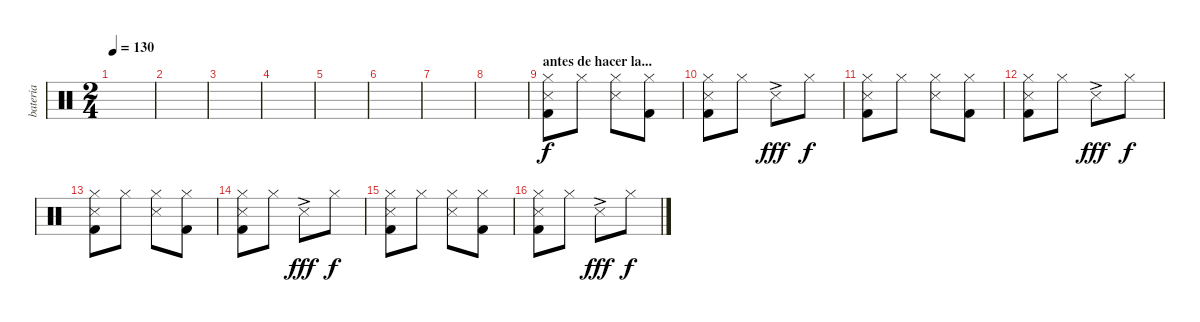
\track ("bateria" "bateria") {instrument percussion}
\staff {score}
\articulation defaults
\ts (2 4)
\tempo 130
\clef neutral
\ks c
|
|
|
|
|
|
|
|
\section ("" "antes de hacer la...")
("Hi-Hat (closed)" "Snare (side stick) 3" "Kick (hit) 2").8{dy f} "Hi-Hat (closed)".8 ("Hi-Hat (closed)" "Snare (side stick) 3").8 ("Hi-Hat (closed)" "Kick (hit) 2").8 |
("Hi-Hat (closed)" "Snare (side stick) 3" "Kick (hit) 2").8 "Hi-Hat (closed)".8 "Snare (side stick) 3"{ac}.8{dy fff} "Hi-Hat (closed)".8{dy f} |
("Hi-Hat (closed)" "Snare (side stick) 3" "Kick (hit) 2").8 "Hi-Hat (closed)".8 ("Hi-Hat (closed)" "Snare (side stick) 3").8 ("Hi-Hat (closed)" "Kick (hit) 2").8 |
("Hi-Hat (closed)" "Snare (side stick) 3" "Kick (hit) 2").8 "Hi-Hat (closed)".8 "Snare (side stick) 3"{ac}.8{dy fff} "Hi-Hat (closed)".8{dy f} |
("Hi-Hat (closed)" "Snare (side stick) 3" "Kick (hit) 2").8 "Hi-Hat (closed)".8 ("Hi-Hat (closed)" "Snare (side stick) 3").8 ("Hi-Hat (closed)" "Kick (hit) 2").8 |
("Hi-Hat (closed)" "Snare (side stick) 3" "Kick (hit) 2").8 "Hi-Hat (closed)".8 "Snare (side stick) 3"{ac}.8{dy fff} "Hi-Hat (closed)".8{dy f} |
("Hi-Hat (closed)" "Snare (side stick) 3" "Kick (hit) 2").8 "Hi-Hat (closed)".8 ("Hi-Hat (closed)" "Snare (side stick) 3").8 ("Hi-Hat (closed)" "Kick (hit) 2").8 |
("Hi-Hat (closed)" "Snare (side stick) 3" "Kick (hit) 2").8 "Hi-Hat (closed)".8 "Snare (side stick) 3"{ac}.8{dy fff} "Hi-Hat (closed)".8{dy f}
